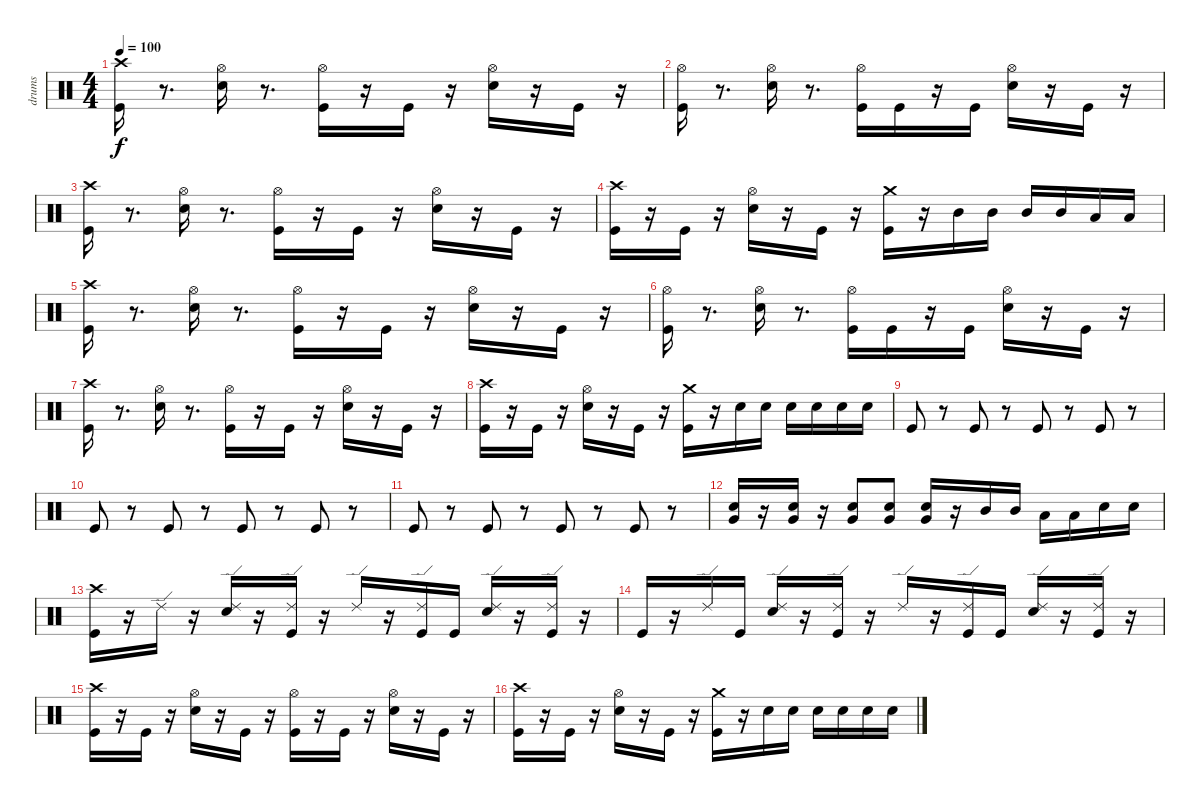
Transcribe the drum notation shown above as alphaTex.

\track ("drums" "drums") {instrument percussion}
\staff {score}
\articulation defaults
\ts (4 4)
\tempo 100
\clef neutral
\ks c
("Crash high (hit)" "Kick (hit)").16{dy f} r.8{d} ("Hi-Hat (open)" "Snare (hit) 2").16 r.8{d} ("Hi-Hat (open)" "Kick (hit)").16 r.16 "Kick (hit)".16 r.16 ("Hi-Hat (open)" "Snare (hit) 2").16 r.16 "Kick (hit)".16 r.16 |
("Hi-Hat (open)" "Kick (hit)").16 r.8{d} ("Hi-Hat (open)" "Snare (hit) 2").16 r.8{d} ("Hi-Hat (open)" "Kick (hit)").16 "Kick (hit)".16 r.16 "Kick (hit)".16 ("Hi-Hat (open)" "Snare (hit) 2").16 r.16 "Kick (hit)".16 r.16 |
("Crash high (hit)" "Kick (hit)").16 r.8{d} ("Hi-Hat (open)" "Snare (hit) 2").16 r.8{d} ("Hi-Hat (open)" "Kick (hit)").16 r.16 "Kick (hit)".16 r.16 ("Hi-Hat (open)" "Snare (hit) 2").16 r.16 "Kick (hit)".16 r.16 |
("Crash high (hit)" "Kick (hit)").16 r.16 "Kick (hit)".16 r.16 ("Hi-Hat (open)" "Snare (hit) 2").16 r.16 "Kick (hit)".16 r.16 ("Crash medium (hit)" "Kick (hit)").16 r.16 "Mid Tom (hit)".16 "Mid Tom (hit)".16 "Mid Tom (hit)".16 "Mid Tom (hit)".16 "Low Tom (hit)".16 "Low Tom (hit)".16 |
("Crash high (hit)" "Kick (hit)").16 r.8{d} ("Hi-Hat (open)" "Snare (hit) 2").16 r.8{d} ("Hi-Hat (open)" "Kick (hit)").16 r.16 "Kick (hit)".16 r.16 ("Hi-Hat (open)" "Snare (hit) 2").16 r.16 "Kick (hit)".16 r.16 |
("Hi-Hat (open)" "Kick (hit)").16 r.8{d} ("Hi-Hat (open)" "Snare (hit) 2").16 r.8{d} ("Hi-Hat (open)" "Kick (hit)").16 "Kick (hit)".16 r.16 "Kick (hit)".16 ("Hi-Hat (open)" "Snare (hit) 2").16 r.16 "Kick (hit)".16 r.16 |
("Crash high (hit)" "Kick (hit)").16 r.8{d} ("Hi-Hat (open)" "Snare (hit) 2").16 r.8{d} ("Hi-Hat (open)" "Kick (hit)").16 r.16 "Kick (hit)".16 r.16 ("Hi-Hat (open)" "Snare (hit) 2").16 r.16 "Kick (hit)".16 r.16 |
("Crash high (hit)" "Kick (hit)").16 r.16 "Kick (hit)".16 r.16 ("Hi-Hat (open)" "Snare (hit) 2").16 r.16 "Kick (hit)".16 r.16 ("Crash medium (hit)" "Kick (hit)").16 r.16 "Snare (hit) 2".16 "Snare (hit) 2".16 "Snare (hit) 2".16 "Snare (hit) 2".16 "Snare (hit) 2".16 "Snare (hit) 2".16 |
"Kick (hit)".8 r.8 "Kick (hit)".8 r.8 "Kick (hit)".8 r.8 "Kick (hit)".8 r.8 |
"Kick (hit)".8 r.8 "Kick (hit)".8 r.8 "Kick (hit)".8 r.8 "Kick (hit)".8 r.8 |
"Kick (hit)".8 r.8 "Kick (hit)".8 r.8 "Kick (hit)".8 r.8 "Kick (hit)".8 r.8 |
("Very Low Tom (hit)" "Snare (hit) 2").16 r.16 ("Snare (hit) 2" "Very Low Tom (hit)").16 r.16 ("Very Low Tom (hit)" "Snare (hit) 2").8 ("Snare (hit) 2" "Very Low Tom (hit)").8 ("Very Low Tom (hit)" "Snare (hit) 2").16 r.16 "Mid Tom (hit)".16 "Mid Tom (hit)".16 "Low Tom (hit)".16 "Low Tom (hit)".16 "Snare (hit) 2".16 "Snare (hit) 2".16 |
("Crash high (hit)" "Kick (hit)").16 r.16 "Ride (edge) 2".16 r.16 ("Ride (edge) 2" "Snare (hit) 2").16 r.16 ("Ride (edge) 2" "Kick (hit)").16 r.16 "Ride (edge) 2".16 r.16 ("Ride (edge) 2" "Kick (hit)").16 "Kick (hit)".16 ("Ride (edge) 2" "Snare (hit) 2").16 r.16 ("Ride (edge) 2" "Kick (hit)").16 r.16 |
"Kick (hit)".16 r.16 "Ride (edge) 2".16 "Kick (hit)".16 ("Ride (edge) 2" "Snare (hit) 2").16 r.16 ("Ride (edge) 2" "Kick (hit)").16 r.16 "Ride (edge) 2".16 r.16 ("Ride (edge) 2" "Kick (hit)").16 "Kick (hit)".16 ("Ride (edge) 2" "Snare (hit) 2").16 r.16 ("Ride (edge) 2" "Kick (hit)").16 r.16 |
("Crash high (hit)" "Kick (hit)").16 r.16 "Kick (hit)".16 r.16 ("Hi-Hat (open)" "Snare (hit) 2").16 r.16 "Kick (hit)".16 r.16 ("Hi-Hat (open)" "Kick (hit)").16 r.16 "Kick (hit)".16 r.16 ("Hi-Hat (open)" "Snare (hit) 2").16 r.16 "Kick (hit)".16 r.16 |
("Crash high (hit)" "Kick (hit)").16 r.16 "Kick (hit)".16 r.16 ("Hi-Hat (open)" "Snare (hit) 2").16 r.16 "Kick (hit)".16 r.16 ("Crash medium (hit)" "Kick (hit)").16 r.16 "Snare (hit) 2".16 "Snare (hit) 2".16 "Snare (hit) 2".16 "Snare (hit) 2".16 "Snare (hit) 2".16 "Snare (hit) 2".16
